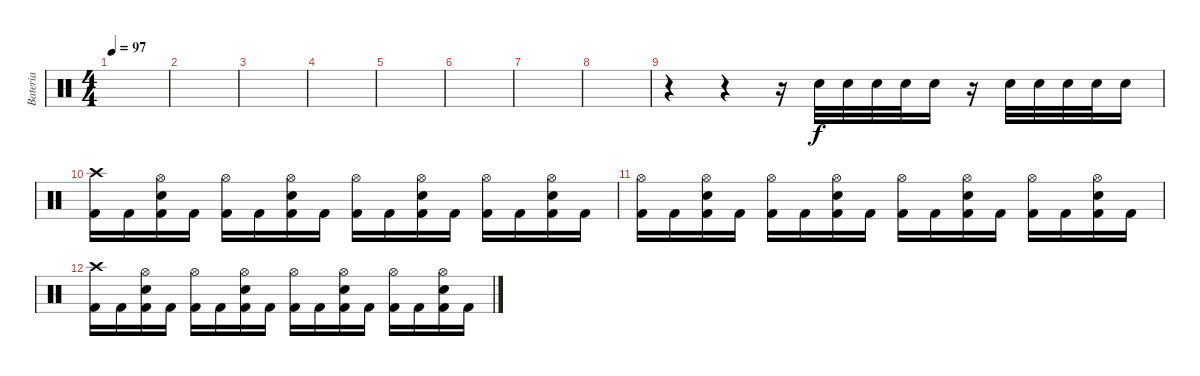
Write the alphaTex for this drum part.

\track ("Bateria" "Bateria") {instrument percussion}
\staff {score}
\articulation defaults
\ts (4 4)
\tempo 97
\clef neutral
\ks c
|
|
|
|
|
|
|
|
r.4 r.4 r.16 "Electric Snare (hit)".32 "Electric Snare (hit)".32 "Electric Snare (hit)".32 "Electric Snare (hit)".32 "Electric Snare (hit)".16 r.16 "Electric Snare (hit)".32 "Electric Snare (hit)".32 "Electric Snare (hit)".32 "Electric Snare (hit)".32 "Electric Snare (hit)".16 |
("Crash high (hit)" "Kick (hit) 2").16 "Kick (hit) 2".16 ("Hi-Hat (open)" "Electric Snare (hit)" "Kick (hit) 2").16 "Kick (hit) 2".16 ("Hi-Hat (open)" "Kick (hit) 2").16 "Kick (hit) 2".16 ("Hi-Hat (open)" "Electric Snare (hit)" "Kick (hit) 2").16 "Kick (hit) 2".16 ("Hi-Hat (open)" "Kick (hit) 2").16 "Kick (hit) 2".16 ("Hi-Hat (open)" "Electric Snare (hit)" "Kick (hit) 2").16 "Kick (hit) 2".16 ("Hi-Hat (open)" "Kick (hit) 2").16 "Kick (hit) 2".16 ("Hi-Hat (open)" "Electric Snare (hit)" "Kick (hit) 2").16 "Kick (hit) 2".16 |
("Hi-Hat (open)" "Kick (hit) 2").16 "Kick (hit) 2".16 ("Hi-Hat (open)" "Electric Snare (hit)" "Kick (hit) 2").16 "Kick (hit) 2".16 ("Hi-Hat (open)" "Kick (hit) 2").16 "Kick (hit) 2".16 ("Hi-Hat (open)" "Electric Snare (hit)" "Kick (hit) 2").16 "Kick (hit) 2".16 ("Hi-Hat (open)" "Kick (hit) 2").16 "Kick (hit) 2".16 ("Hi-Hat (open)" "Electric Snare (hit)" "Kick (hit) 2").16 "Kick (hit) 2".16 ("Hi-Hat (open)" "Kick (hit) 2").16 "Kick (hit) 2".16 ("Hi-Hat (open)" "Electric Snare (hit)" "Kick (hit) 2").16 "Kick (hit) 2".16 |
("Crash high (hit)" "Kick (hit) 2").16 "Kick (hit) 2".16 ("Hi-Hat (open)" "Electric Snare (hit)" "Kick (hit) 2").16 "Kick (hit) 2".16 ("Hi-Hat (open)" "Kick (hit) 2").16 "Kick (hit) 2".16 ("Hi-Hat (open)" "Electric Snare (hit)" "Kick (hit) 2").16 "Kick (hit) 2".16 ("Hi-Hat (open)" "Kick (hit) 2").16 "Kick (hit) 2".16 ("Hi-Hat (open)" "Electric Snare (hit)" "Kick (hit) 2").16 "Kick (hit) 2".16 ("Hi-Hat (open)" "Kick (hit) 2").16 "Kick (hit) 2".16 ("Hi-Hat (open)" "Electric Snare (hit)" "Kick (hit) 2").16 "Kick (hit) 2".16
